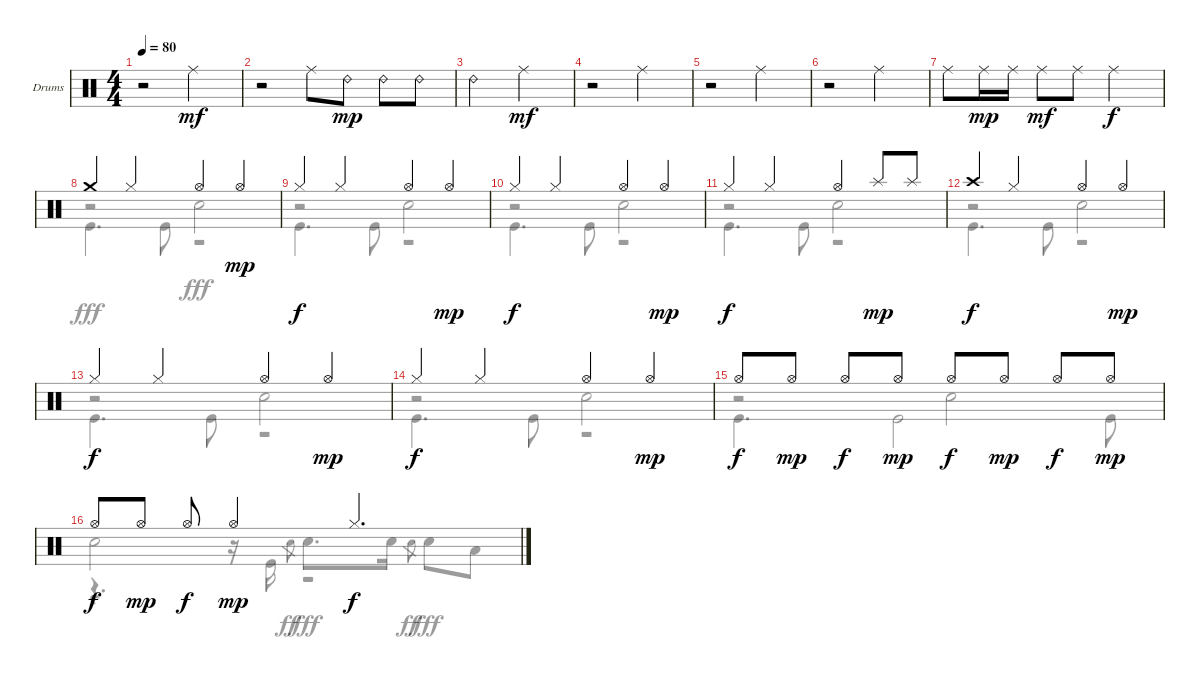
\defaultSystemsLayout 4
\bracketExtendMode groupsimilarinstruments
\firstSystemTrackNameOrientation horizontal
\otherSystemsTrackNameOrientation horizontal
\track ("Drumkit" "Drums") {instrument percussion}
\staff {score}
\articulation defaults
\voice
\ts (4 4)
\tempo 80
\clef neutral
\ks c
r.2{dy mf} "Ride (middle)".2 |
r.2 "Ride (middle)".8 "Ride (bell) 2".8{dy mp} "Ride (bell) 2".8 "Ride (bell) 2".8 |
"Ride (bell) 2".2 "Ride (middle)".2{dy mf} |
r.2 "Ride (middle)".2 |
r.2 "Ride (middle)".2 |
r.2 "Ride (middle)".2 |
"Ride (middle)".8 "Ride (middle)".16{dy mp} "Ride (middle)".16 "Ride (middle)".8{dy mf} "Ride (middle)".8 "Ride (middle)".2{dy f} |
"Crash medium (hit)".4 "Hi-Hat (closed)".4 "Hi-Hat (open)".4 "Hi-Hat (open)".4{dy mp} |
"Hi-Hat (closed)".4{dy f} "Hi-Hat (closed)".4 "Hi-Hat (open)".4 "Hi-Hat (open)".4{dy mp} |
"Hi-Hat (closed)".4{dy f} "Hi-Hat (closed)".4 "Hi-Hat (open)".4 "Hi-Hat (open)".4{dy mp} |
"Hi-Hat (closed)".4{dy f} "Hi-Hat (closed)".4 "Hi-Hat (open)".4 "Splash (hit)".8{dy mp} "Splash (hit)".8 |
"Crash high (hit)".4{dy f} "Hi-Hat (closed)".4 "Hi-Hat (open)".4 "Hi-Hat (open)".4{dy mp} |
"Hi-Hat (closed)".4{dy f} "Hi-Hat (closed)".4 "Hi-Hat (open)".4 "Hi-Hat (open)".4{dy mp} |
"Hi-Hat (closed)".4{dy f} "Hi-Hat (closed)".4 "Hi-Hat (open)".4 "Hi-Hat (open)".4{dy mp} |
"Hi-Hat (open)".8{dy f} "Hi-Hat (open)".8{dy mp} "Hi-Hat (open)".8{dy f} "Hi-Hat (open)".8{dy mp} "Hi-Hat (open)".8{dy f} "Hi-Hat (open)".8{dy mp} "Hi-Hat (open)".8{dy f} "Hi-Hat (open)".8{dy mp} |
"Hi-Hat (open)".8{dy f} "Hi-Hat (open)".8{dy mp} "Hi-Hat (open)".8{dy f} "Hi-Hat (open)".4{dy mp} "Hi-Hat (closed)".4{d dy f}
\voice
\clef neutral
\ottava regular
\simile none
\ks c
|
|
|
|
|
|
|
r.2 "Snare (hit) 2".2{dy fff} |
r.2 "Snare (hit) 2".2 |
r.2 "Snare (hit) 2".2 |
r.2 "Snare (hit) 2".2 |
r.2 "Snare (hit) 2".2 |
r.2 "Snare (hit) 2".2 |
r.2 "Snare (hit) 2".2 |
r.2 "Snare (hit) 2".2 |
"Snare (hit) 2".2 "Snare (hit) 2".8{gr dy ff} "Snare (hit) 2".8{d dy fff} "Snare (hit) 2".16 "Snare (hit) 2".8{gr dy ff} "Snare (hit) 2".8{dy fff} "Low Tom (hit)".8
\voice
\clef neutral
\ottava regular
\simile none
\ks c
|
|
|
|
|
|
|
"Kick (hit)".4{d} "Kick (hit)".8 r.2 |
"Kick (hit)".4{d} "Kick (hit)".8 r.2 |
"Kick (hit)".4{d} "Kick (hit)".8 r.2 |
"Kick (hit)".4{d} "Kick (hit)".8 r.2 |
"Kick (hit)".4{d} "Kick (hit)".8 r.2 |
"Kick (hit)".4{d} "Kick (hit)".8 r.2 |
"Kick (hit)".4{d} "Kick (hit)".8 r.2 |
"Kick (hit)".4{d} "Kick (hit)".2 "Kick (hit)".8 |
r.4{d} r.16 "Kick (hit)".16 r.2
